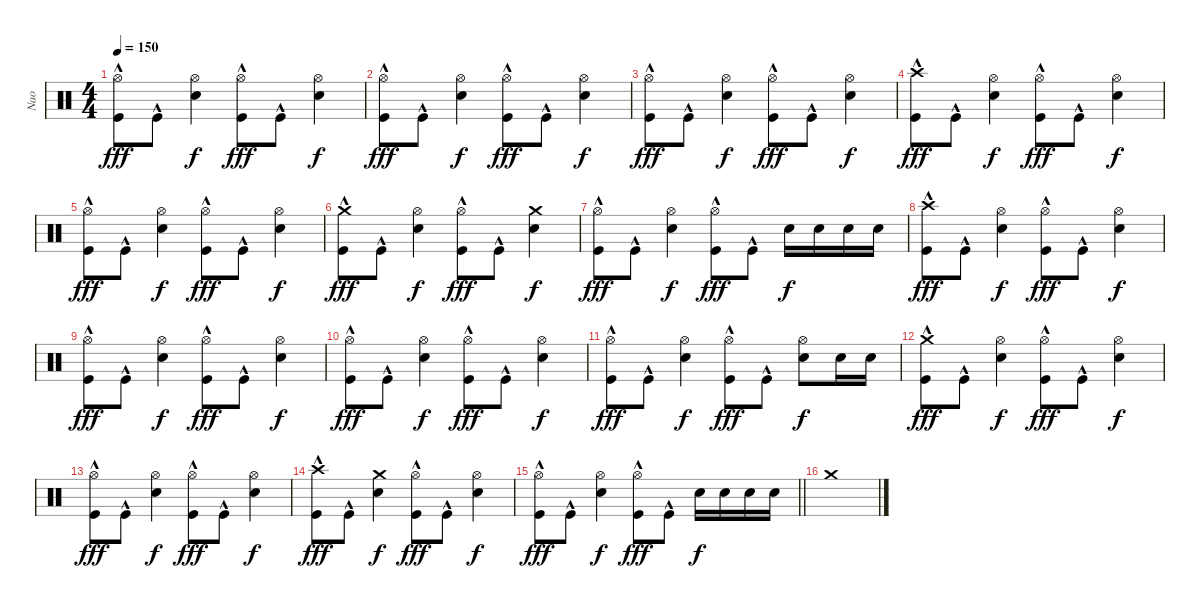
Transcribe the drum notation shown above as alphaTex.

\track ("Nao" "Nao") {instrument percussion}
\staff {score}
\articulation defaults
\ts (4 4)
\tempo 150
\clef neutral
\ks c
("Hi-Hat (open)" "Kick (hit)"{hac}).8{dy fff} "Kick (hit)"{hac}.8 ("Hi-Hat (open)" "Electric Snare (hit)").4{dy f} ("Hi-Hat (open)" "Kick (hit)"{hac}).8{dy fff} "Kick (hit)"{hac}.8 ("Hi-Hat (open)" "Electric Snare (hit)").4{dy f} |
("Hi-Hat (open)" "Kick (hit)"{hac}).8{dy fff} "Kick (hit)"{hac}.8 ("Hi-Hat (open)" "Electric Snare (hit)").4{dy f} ("Hi-Hat (open)" "Kick (hit)"{hac}).8{dy fff} "Kick (hit)"{hac}.8 ("Hi-Hat (open)" "Electric Snare (hit)").4{dy f} |
("Hi-Hat (open)" "Kick (hit)"{hac}).8{dy fff} "Kick (hit)"{hac}.8 ("Hi-Hat (open)" "Electric Snare (hit)").4{dy f} ("Hi-Hat (open)" "Kick (hit)"{hac}).8{dy fff} "Kick (hit)"{hac}.8 ("Hi-Hat (open)" "Electric Snare (hit)").4{dy f} |
("Crash high (hit)" "Kick (hit)"{hac}).8{dy fff} "Kick (hit)"{hac}.8 ("Hi-Hat (open)" "Electric Snare (hit)").4{dy f} ("Hi-Hat (open)" "Kick (hit)"{hac}).8{dy fff} "Kick (hit)"{hac}.8 ("Hi-Hat (open)" "Electric Snare (hit)").4{dy f} |
("Hi-Hat (open)" "Kick (hit)"{hac}).8{dy fff} "Kick (hit)"{hac}.8 ("Hi-Hat (open)" "Electric Snare (hit)").4{dy f} ("Hi-Hat (open)" "Kick (hit)"{hac}).8{dy fff} "Kick (hit)"{hac}.8 ("Hi-Hat (open)" "Electric Snare (hit)").4{dy f} |
("Crash medium (hit)" "Kick (hit)"{hac}).8{dy fff} "Kick (hit)"{hac}.8 ("Hi-Hat (open)" "Electric Snare (hit)").4{dy f} ("Hi-Hat (open)" "Kick (hit)"{hac}).8{dy fff} "Kick (hit)"{hac}.8 ("Crash medium (hit)" "Electric Snare (hit)").4{dy f} |
("Hi-Hat (open)" "Kick (hit)"{hac}).8{dy fff} "Kick (hit)"{hac}.8 ("Hi-Hat (open)" "Electric Snare (hit)").4{dy f} ("Hi-Hat (open)" "Kick (hit)"{hac}).8{dy fff} "Kick (hit)"{hac}.8 "Electric Snare (hit)".16{dy f} "Electric Snare (hit)".16 "Electric Snare (hit)".16 "Electric Snare (hit)".16 |
("Crash high (hit)" "Kick (hit)"{hac}).8{dy fff} "Kick (hit)"{hac}.8 ("Hi-Hat (open)" "Electric Snare (hit)").4{dy f} ("Hi-Hat (open)" "Kick (hit)"{hac}).8{dy fff} "Kick (hit)"{hac}.8 ("Hi-Hat (open)" "Electric Snare (hit)").4{dy f} |
("Hi-Hat (open)" "Kick (hit)"{hac}).8{dy fff} "Kick (hit)"{hac}.8 ("Hi-Hat (open)" "Electric Snare (hit)").4{dy f} ("Hi-Hat (open)" "Kick (hit)"{hac}).8{dy fff} "Kick (hit)"{hac}.8 ("Hi-Hat (open)" "Electric Snare (hit)").4{dy f} |
("Hi-Hat (open)" "Kick (hit)"{hac}).8{dy fff} "Kick (hit)"{hac}.8 ("Hi-Hat (open)" "Electric Snare (hit)").4{dy f} ("Hi-Hat (open)" "Kick (hit)"{hac}).8{dy fff} "Kick (hit)"{hac}.8 ("Hi-Hat (open)" "Electric Snare (hit)").4{dy f} |
("Hi-Hat (open)" "Kick (hit)"{hac}).8{dy fff} "Kick (hit)"{hac}.8 ("Hi-Hat (open)" "Electric Snare (hit)").4{dy f} ("Hi-Hat (open)" "Kick (hit)"{hac}).8{dy fff} "Kick (hit)"{hac}.8 ("Hi-Hat (open)" "Electric Snare (hit)").8{dy f} "Electric Snare (hit)".16 "Electric Snare (hit)".16 |
("Crash medium (hit)" "Kick (hit)"{hac}).8{dy fff} "Kick (hit)"{hac}.8 ("Hi-Hat (open)" "Electric Snare (hit)").4{dy f} ("Hi-Hat (open)" "Kick (hit)"{hac}).8{dy fff} "Kick (hit)"{hac}.8 ("Hi-Hat (open)" "Electric Snare (hit)").4{dy f} |
("Hi-Hat (open)" "Kick (hit)"{hac}).8{dy fff} "Kick (hit)"{hac}.8 ("Hi-Hat (open)" "Electric Snare (hit)").4{dy f} ("Hi-Hat (open)" "Kick (hit)"{hac}).8{dy fff} "Kick (hit)"{hac}.8 ("Hi-Hat (open)" "Electric Snare (hit)").4{dy f} |
("Crash high (hit)" "Kick (hit)"{hac}).8{dy fff} "Kick (hit)"{hac}.8 ("Crash medium (hit)" "Electric Snare (hit)").4{dy f} ("Hi-Hat (open)" "Kick (hit)"{hac}).8{dy fff} "Kick (hit)"{hac}.8 ("Hi-Hat (open)" "Electric Snare (hit)").4{dy f} |
\barLineRight lightlight
("Hi-Hat (open)" "Kick (hit)"{hac}).8{dy fff} "Kick (hit)"{hac}.8 ("Hi-Hat (open)" "Electric Snare (hit)").4{dy f} ("Hi-Hat (open)" "Kick (hit)"{hac}).8{dy fff} "Kick (hit)"{hac}.8 "Electric Snare (hit)".16{dy f} "Electric Snare (hit)".16 "Electric Snare (hit)".16 "Electric Snare (hit)".16 |
\section ("" "")
"Crash medium (hit)".1
